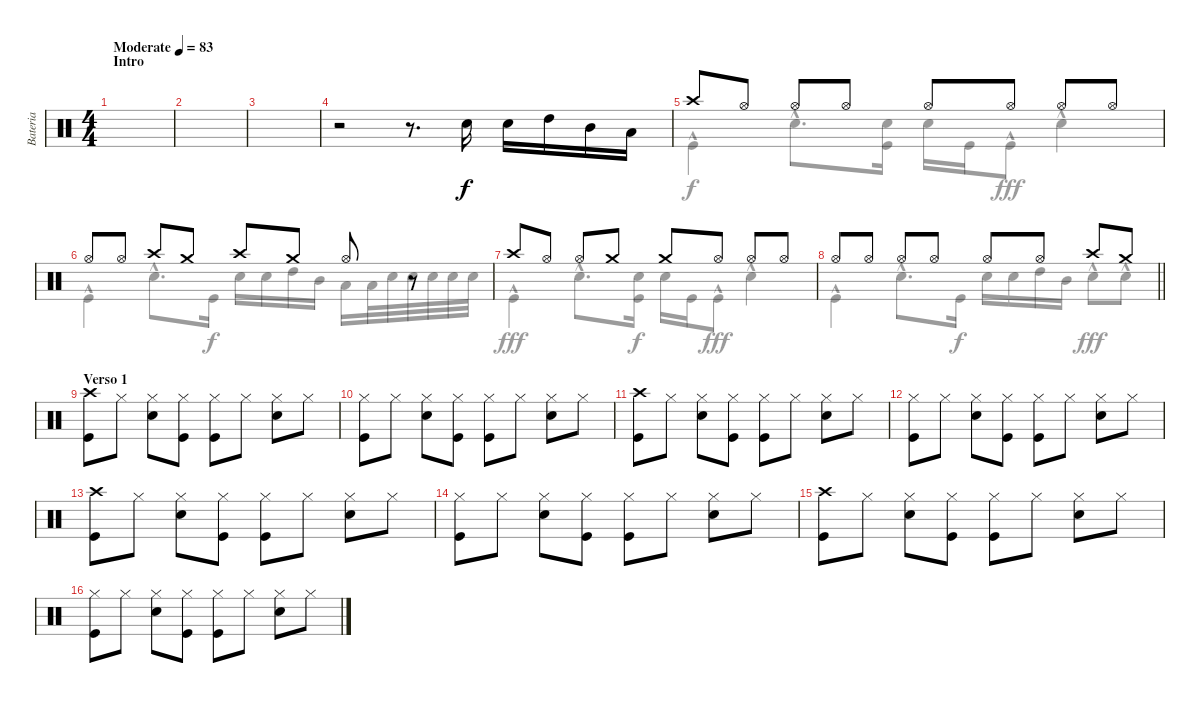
\track ("Bateria" "Bateria") {instrument percussion}
\staff {score}
\articulation defaults
\voice
\ts (4 4)
\section ("" "Intro")
\tempo (83 "Moderate")
\clef neutral
\ks c
|
|
|
r.2 r.8{d} "Snare (hit) 2".16 "Snare (hit) 2".16 "High Tom (hit)".16 "Mid Tom (hit)".16 "Low Tom (hit)".16 |
"Crash high (hit)".8 "Hi-Hat (open)".8 "Hi-Hat (open)".8 "Hi-Hat (open)".8 "Hi-Hat (open)".8 "Hi-Hat (open)".8 "Hi-Hat (open)".8 "Hi-Hat (open)".8 |
"Hi-Hat (open)".8 "Hi-Hat (open)".8 "Crash high (hit)".8 "Crash medium (hit)".8 "Crash high (hit)".8 "Crash medium (hit)".8 "Hi-Hat (open)".8 r.8 |
"Crash high (hit)".8 "Hi-Hat (open)".8 "Hi-Hat (open)".8 "Crash medium (hit)".8 "Crash medium (hit)".8 "Hi-Hat (open)".8 "Hi-Hat (open)".8 "Hi-Hat (open)".8 |
\barLineRight lightlight "Hi-Hat (open)".8 "Hi-Hat (open)".8 "Hi-Hat (open)".8 "Hi-Hat (open)".8 "Hi-Hat (open)".8 "Hi-Hat (open)".8 "Crash high (hit)".8 "Crash medium (hit)".8
|
\section ("" "Verso 1")
("Crash high (hit)" "Kick (hit)").8{dy f} "Hi-Hat (closed)".8 ("Hi-Hat (closed)" "Snare (hit) 2").8 ("Hi-Hat (closed)" "Kick (hit)").8 ("Hi-Hat (closed)" "Kick (hit)").8 "Hi-Hat (closed)".8 ("Hi-Hat (closed)" "Snare (hit) 2").8 "Hi-Hat (closed)".8 |
("Hi-Hat (closed)" "Kick (hit)").8 "Hi-Hat (closed)".8 ("Hi-Hat (closed)" "Snare (hit) 2").8 ("Hi-Hat (closed)" "Kick (hit)").8 ("Hi-Hat (closed)" "Kick (hit)").8 "Hi-Hat (closed)".8 ("Hi-Hat (closed)" "Snare (hit) 2").8 "Hi-Hat (closed)".8 |
("Crash high (hit)" "Kick (hit)").8 "Hi-Hat (closed)".8 ("Hi-Hat (closed)" "Snare (hit) 2").8 ("Hi-Hat (closed)" "Kick (hit)").8 ("Hi-Hat (closed)" "Kick (hit)").8 "Hi-Hat (closed)".8 ("Hi-Hat (closed)" "Snare (hit) 2").8 "Hi-Hat (closed)".8 |
("Hi-Hat (closed)" "Kick (hit)").8 "Hi-Hat (closed)".8 ("Hi-Hat (closed)" "Snare (hit) 2").8 ("Hi-Hat (closed)" "Kick (hit)").8 ("Hi-Hat (closed)" "Kick (hit)").8 "Hi-Hat (closed)".8 ("Hi-Hat (closed)" "Snare (hit) 2").8 "Hi-Hat (closed)".8 |
("Crash high (hit)" "Kick (hit)").8 "Hi-Hat (closed)".8 ("Hi-Hat (closed)" "Snare (hit) 2").8 ("Hi-Hat (closed)" "Kick (hit)").8 ("Hi-Hat (closed)" "Kick (hit)").8 "Hi-Hat (closed)".8 ("Hi-Hat (closed)" "Snare (hit) 2").8 "Hi-Hat (closed)".8 |
("Hi-Hat (closed)" "Kick (hit)").8 "Hi-Hat (closed)".8 ("Hi-Hat (closed)" "Snare (hit) 2").8 ("Hi-Hat (closed)" "Kick (hit)").8 ("Hi-Hat (closed)" "Kick (hit)").8 "Hi-Hat (closed)".8 ("Hi-Hat (closed)" "Snare (hit) 2").8 "Hi-Hat (closed)".8 |
("Crash high (hit)" "Kick (hit)").8 "Hi-Hat (closed)".8 ("Hi-Hat (closed)" "Snare (hit) 2").8 ("Hi-Hat (closed)" "Kick (hit)").8 ("Hi-Hat (closed)" "Kick (hit)").8 "Hi-Hat (closed)".8 ("Hi-Hat (closed)" "Snare (hit) 2").8 "Hi-Hat (closed)".8 |
("Hi-Hat (closed)" "Kick (hit)").8 "Hi-Hat (closed)".8 ("Hi-Hat (closed)" "Snare (hit) 2").8 ("Hi-Hat (closed)" "Kick (hit)").8 ("Hi-Hat (closed)" "Kick (hit)").8 "Hi-Hat (closed)".8 ("Hi-Hat (closed)" "Snare (hit) 2").8 "Hi-Hat (closed)".8
\voice
\clef neutral
\ottava regular
\simile none
\ks c
|
|
|
|
"Kick (hit)"{hac}.4 "Snare (hit) 2"{hac}.8{d} ("Snare (hit) 2" "Kick (hit)").16{dy f} "Snare (hit) 2".16 "Kick (hit)".16 "Kick (hit)"{hac}.8{dy fff} "Snare (hit) 2"{hac}.4 |
"Kick (hit)"{hac}.4 "Snare (hit) 2"{hac}.8{d} "Kick (hit)".16{dy f} "Snare (hit) 2".16 "Snare (hit) 2".16 "High Tom (hit)".16 "Mid Tom (hit)".16 "Low Tom (hit)".16 "Low Tom (hit)".32 "Snare (hit) 2".32 "Snare (hit) 2".32 "Snare (hit) 2".32 "Snare (hit) 2".32 "Snare (hit) 2".32 |
"Kick (hit)"{hac}.4{dy fff} "Snare (hit) 2"{hac}.8{d} ("Snare (hit) 2" "Kick (hit)").16{dy f} "Snare (hit) 2".16 "Kick (hit)".16 "Kick (hit)"{hac}.8{dy fff} "Snare (hit) 2"{hac}.4 |
\barLineRight lightlight "Kick (hit)"{hac}.4 "Snare (hit) 2"{hac}.8{d} "Kick (hit)".16{dy f} "Snare (hit) 2".16 "Snare (hit) 2".16 "High Tom (hit)".16 "Mid Tom (hit)".16 "Snare (hit) 2"{hac}.8{dy fff} "Snare (hit) 2"{hac}.8
|
|
|
|
|
|
|
|
